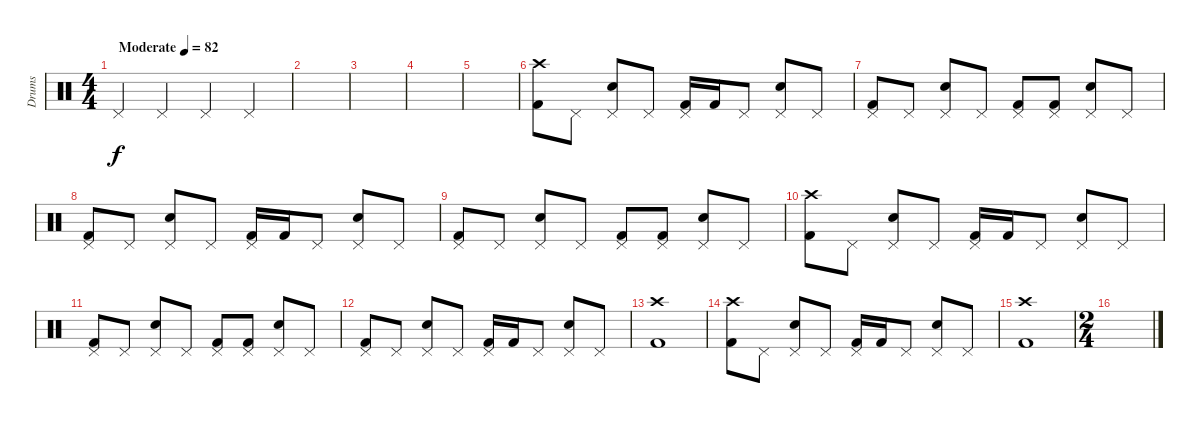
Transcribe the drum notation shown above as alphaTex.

\track ("Drums" "Drums") {instrument percussion}
\staff {score}
\articulation defaults
\ts (4 4)
\tempo (82 "Moderate")
\clef neutral
\ks c "Pedal Hi-Hat (hit)".4{dy f} "Pedal Hi-Hat (hit)".4 "Pedal Hi-Hat (hit)".4 "Pedal Hi-Hat (hit)".4
|
|
|
|
|
("Kick (hit) 2" "Crash high (hit)").8 "Pedal Hi-Hat (hit)".8 ("Snare (hit) 2" "Pedal Hi-Hat (hit)").8 "Pedal Hi-Hat (hit)".8 ("Kick (hit) 2" "Pedal Hi-Hat (hit)").16 "Kick (hit) 2".16 "Pedal Hi-Hat (hit)".8 ("Snare (hit) 2" "Pedal Hi-Hat (hit)").8 "Pedal Hi-Hat (hit)".8 |
("Kick (hit) 2" "Pedal Hi-Hat (hit)").8 "Pedal Hi-Hat (hit)".8 ("Snare (hit) 2" "Pedal Hi-Hat (hit)").8 "Pedal Hi-Hat (hit)".8 ("Kick (hit) 2" "Pedal Hi-Hat (hit)").8 ("Kick (hit) 2" "Pedal Hi-Hat (hit)").8 ("Snare (hit) 2" "Pedal Hi-Hat (hit)").8 "Pedal Hi-Hat (hit)".8 |
("Kick (hit) 2" "Pedal Hi-Hat (hit)").8 "Pedal Hi-Hat (hit)".8 ("Snare (hit) 2" "Pedal Hi-Hat (hit)").8 "Pedal Hi-Hat (hit)".8 ("Kick (hit) 2" "Pedal Hi-Hat (hit)").16 "Kick (hit) 2".16 "Pedal Hi-Hat (hit)".8 ("Snare (hit) 2" "Pedal Hi-Hat (hit)").8 "Pedal Hi-Hat (hit)".8 |
("Kick (hit) 2" "Pedal Hi-Hat (hit)").8 "Pedal Hi-Hat (hit)".8 ("Snare (hit) 2" "Pedal Hi-Hat (hit)").8 "Pedal Hi-Hat (hit)".8 ("Kick (hit) 2" "Pedal Hi-Hat (hit)").8 ("Kick (hit) 2" "Pedal Hi-Hat (hit)").8 ("Snare (hit) 2" "Pedal Hi-Hat (hit)").8 "Pedal Hi-Hat (hit)".8 |
("Kick (hit) 2" "Crash high (hit)").8 "Pedal Hi-Hat (hit)".8 ("Snare (hit) 2" "Pedal Hi-Hat (hit)").8 "Pedal Hi-Hat (hit)".8 ("Kick (hit) 2" "Pedal Hi-Hat (hit)").16 "Kick (hit) 2".16 "Pedal Hi-Hat (hit)".8 ("Snare (hit) 2" "Pedal Hi-Hat (hit)").8 "Pedal Hi-Hat (hit)".8 |
("Kick (hit) 2" "Pedal Hi-Hat (hit)").8 "Pedal Hi-Hat (hit)".8 ("Snare (hit) 2" "Pedal Hi-Hat (hit)").8 "Pedal Hi-Hat (hit)".8 ("Kick (hit) 2" "Pedal Hi-Hat (hit)").8 ("Kick (hit) 2" "Pedal Hi-Hat (hit)").8 ("Snare (hit) 2" "Pedal Hi-Hat (hit)").8 "Pedal Hi-Hat (hit)".8 |
("Kick (hit) 2" "Pedal Hi-Hat (hit)").8 "Pedal Hi-Hat (hit)".8 ("Snare (hit) 2" "Pedal Hi-Hat (hit)").8 "Pedal Hi-Hat (hit)".8 ("Kick (hit) 2" "Pedal Hi-Hat (hit)").16 "Kick (hit) 2".16 "Pedal Hi-Hat (hit)".8 ("Snare (hit) 2" "Pedal Hi-Hat (hit)").8 "Pedal Hi-Hat (hit)".8 |
("Kick (hit) 2" "Crash high (hit)").1 |
("Kick (hit) 2" "Crash high (hit)").8 "Pedal Hi-Hat (hit)".8 ("Snare (hit) 2" "Pedal Hi-Hat (hit)").8 "Pedal Hi-Hat (hit)".8 ("Kick (hit) 2" "Pedal Hi-Hat (hit)").16 "Kick (hit) 2".16 "Pedal Hi-Hat (hit)".8 ("Snare (hit) 2" "Pedal Hi-Hat (hit)").8 "Pedal Hi-Hat (hit)".8 |
("Kick (hit) 2" "Crash high (hit)").1 |
\ts (2 4)
